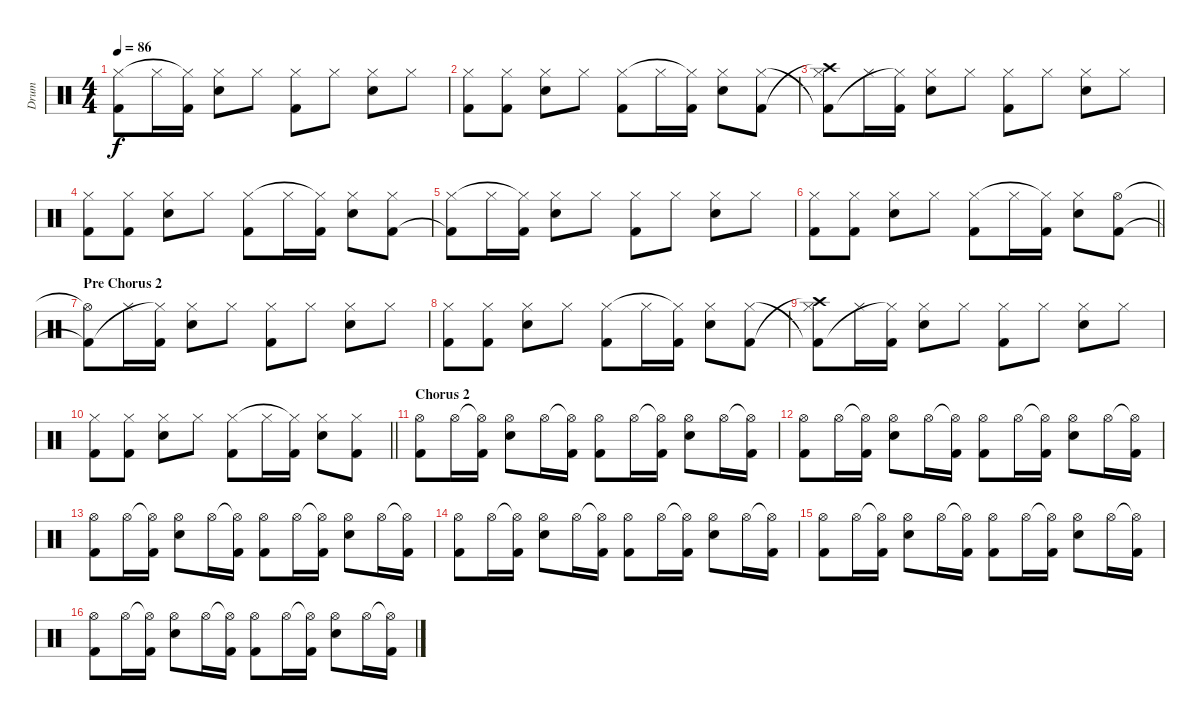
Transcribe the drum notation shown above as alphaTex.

\track ("Drum" "Drum") {instrument percussion}
\staff {score}
\articulation defaults
\ts (4 4)
\tempo 86
\clef neutral
\ks c
("Kick (hit) 2"{t} "Hi-Hat (closed)").8{dy f} "Hi-Hat (closed)".16 ("Kick (hit) 2" "Hi-Hat (closed)"{t}).16 ("Hi-Hat (closed)" "Snare (hit) 2").8 "Hi-Hat (closed)".8 ("Kick (hit) 2" "Hi-Hat (closed)").8 "Hi-Hat (closed)".8 ("Hi-Hat (closed)" "Snare (hit) 2").8 "Hi-Hat (closed)".8 |
("Kick (hit) 2" "Hi-Hat (closed)").8 ("Kick (hit) 2" "Hi-Hat (closed)").8 ("Hi-Hat (closed)" "Snare (hit) 2").8 "Hi-Hat (closed)".8 ("Kick (hit) 2" "Hi-Hat (closed)").8 "Hi-Hat (closed)".16 ("Kick (hit) 2" "Hi-Hat (closed)"{t}).16 ("Hi-Hat (closed)" "Snare (hit) 2").8 ("Kick (hit) 2" "Hi-Hat (closed)").8 |
("Crash high (hit)"{t} "Kick (hit) 2"{t} "Hi-Hat (closed)").8 "Hi-Hat (closed)".16 ("Kick (hit) 2" "Hi-Hat (closed)"{t}).16 ("Hi-Hat (closed)" "Snare (hit) 2").8 "Hi-Hat (closed)".8 ("Kick (hit) 2" "Hi-Hat (closed)").8 "Hi-Hat (closed)".8 ("Hi-Hat (closed)" "Snare (hit) 2").8 "Hi-Hat (closed)".8 |
("Kick (hit) 2" "Hi-Hat (closed)").8 ("Kick (hit) 2" "Hi-Hat (closed)").8 ("Hi-Hat (closed)" "Snare (hit) 2").8 "Hi-Hat (closed)".8 ("Kick (hit) 2" "Hi-Hat (closed)").8 "Hi-Hat (closed)".16 ("Kick (hit) 2" "Hi-Hat (closed)"{t}).16 ("Hi-Hat (closed)" "Snare (hit) 2").8 ("Kick (hit) 2" "Hi-Hat (closed)").8 |
("Kick (hit) 2"{t} "Hi-Hat (closed)").8 "Hi-Hat (closed)".16 ("Kick (hit) 2" "Hi-Hat (closed)"{t}).16 ("Hi-Hat (closed)" "Snare (hit) 2").8 "Hi-Hat (closed)".8 ("Kick (hit) 2" "Hi-Hat (closed)").8 "Hi-Hat (closed)".8 ("Hi-Hat (closed)" "Snare (hit) 2").8 "Hi-Hat (closed)".8 |
\barLineRight lightlight
("Kick (hit) 2" "Hi-Hat (closed)").8 ("Kick (hit) 2" "Hi-Hat (closed)").8 ("Hi-Hat (closed)" "Snare (hit) 2").8 "Hi-Hat (closed)".8 ("Kick (hit) 2" "Hi-Hat (closed)").8 "Hi-Hat (closed)".16 ("Kick (hit) 2" "Hi-Hat (closed)"{t}).16 ("Hi-Hat (closed)" "Snare (hit) 2").8 ("Hi-Hat (open)" "Kick (hit) 2").8 |
\section ("" "Pre Chorus 2")
("Hi-Hat (open)"{t} "Kick (hit) 2"{t}).8 "Hi-Hat (closed)".16 ("Kick (hit) 2" "Hi-Hat (closed)"{t}).16 ("Hi-Hat (closed)" "Snare (hit) 2").8 "Hi-Hat (closed)".8 ("Kick (hit) 2" "Hi-Hat (closed)").8 "Hi-Hat (closed)".8 ("Hi-Hat (closed)" "Snare (hit) 2").8 "Hi-Hat (closed)".8 |
("Kick (hit) 2" "Hi-Hat (closed)").8 ("Kick (hit) 2" "Hi-Hat (closed)").8 ("Hi-Hat (closed)" "Snare (hit) 2").8 "Hi-Hat (closed)".8 ("Kick (hit) 2" "Hi-Hat (closed)").8 "Hi-Hat (closed)".16 ("Kick (hit) 2" "Hi-Hat (closed)"{t}).16 ("Hi-Hat (closed)" "Snare (hit) 2").8 ("Kick (hit) 2" "Hi-Hat (closed)").8 |
("Crash high (hit)"{t} "Kick (hit) 2"{t} "Hi-Hat (closed)").8 "Hi-Hat (closed)".16 ("Kick (hit) 2" "Hi-Hat (closed)"{t}).16 ("Hi-Hat (closed)" "Snare (hit) 2").8 "Hi-Hat (closed)".8 ("Kick (hit) 2" "Hi-Hat (closed)").8 "Hi-Hat (closed)".8 ("Hi-Hat (closed)" "Snare (hit) 2").8 "Hi-Hat (closed)".8 |
\barLineRight lightlight
("Kick (hit) 2" "Hi-Hat (closed)").8 ("Kick (hit) 2" "Hi-Hat (closed)").8 ("Hi-Hat (closed)" "Snare (hit) 2").8 "Hi-Hat (closed)".8 ("Kick (hit) 2" "Hi-Hat (closed)").8 "Hi-Hat (closed)".16 ("Kick (hit) 2" "Hi-Hat (closed)"{t}).16 ("Hi-Hat (closed)" "Snare (hit) 2").8 ("Kick (hit) 2" "Hi-Hat (closed)").8 |
\section ("" "Chorus 2")
("Hi-Hat (open)" "Kick (hit) 2").8 "Hi-Hat (open)".16 ("Hi-Hat (open)"{t} "Kick (hit) 2").16 ("Hi-Hat (open)" "Snare (hit) 2").8 "Hi-Hat (open)".16 ("Hi-Hat (open)"{t} "Kick (hit) 2").16 ("Hi-Hat (open)" "Kick (hit) 2").8 "Hi-Hat (open)".16 ("Hi-Hat (open)"{t} "Kick (hit) 2").16 ("Hi-Hat (open)" "Snare (hit) 2").8 "Hi-Hat (open)".16 ("Hi-Hat (open)"{t} "Kick (hit) 2").16 |
("Hi-Hat (open)" "Kick (hit) 2").8 "Hi-Hat (open)".16 ("Hi-Hat (open)"{t} "Kick (hit) 2").16 ("Hi-Hat (open)" "Snare (hit) 2").8 "Hi-Hat (open)".16 ("Hi-Hat (open)"{t} "Kick (hit) 2").16 ("Hi-Hat (open)" "Kick (hit) 2").8 "Hi-Hat (open)".16 ("Hi-Hat (open)"{t} "Kick (hit) 2").16 ("Hi-Hat (open)" "Snare (hit) 2").8 "Hi-Hat (open)".16 ("Hi-Hat (open)"{t} "Kick (hit) 2").16 |
("Hi-Hat (open)" "Kick (hit) 2").8 "Hi-Hat (open)".16 ("Hi-Hat (open)"{t} "Kick (hit) 2").16 ("Hi-Hat (open)" "Snare (hit) 2").8 "Hi-Hat (open)".16 ("Hi-Hat (open)"{t} "Kick (hit) 2").16 ("Hi-Hat (open)" "Kick (hit) 2").8 "Hi-Hat (open)".16 ("Hi-Hat (open)"{t} "Kick (hit) 2").16 ("Hi-Hat (open)" "Snare (hit) 2").8 "Hi-Hat (open)".16 ("Hi-Hat (open)"{t} "Kick (hit) 2").16 |
("Hi-Hat (open)" "Kick (hit) 2").8 "Hi-Hat (open)".16 ("Hi-Hat (open)"{t} "Kick (hit) 2").16 ("Hi-Hat (open)" "Snare (hit) 2").8 "Hi-Hat (open)".16 ("Hi-Hat (open)"{t} "Kick (hit) 2").16 ("Hi-Hat (open)" "Kick (hit) 2").8 "Hi-Hat (open)".16 ("Hi-Hat (open)"{t} "Kick (hit) 2").16 ("Hi-Hat (open)" "Snare (hit) 2").8 "Hi-Hat (open)".16 ("Hi-Hat (open)"{t} "Kick (hit) 2").16 |
("Hi-Hat (open)" "Kick (hit) 2").8 "Hi-Hat (open)".16 ("Hi-Hat (open)"{t} "Kick (hit) 2").16 ("Hi-Hat (open)" "Snare (hit) 2").8 "Hi-Hat (open)".16 ("Hi-Hat (open)"{t} "Kick (hit) 2").16 ("Hi-Hat (open)" "Kick (hit) 2").8 "Hi-Hat (open)".16 ("Hi-Hat (open)"{t} "Kick (hit) 2").16 ("Hi-Hat (open)" "Snare (hit) 2").8 "Hi-Hat (open)".16 ("Hi-Hat (open)"{t} "Kick (hit) 2").16 |
("Hi-Hat (open)" "Kick (hit) 2").8 "Hi-Hat (open)".16 ("Hi-Hat (open)"{t} "Kick (hit) 2").16 ("Hi-Hat (open)" "Snare (hit) 2").8 "Hi-Hat (open)".16 ("Hi-Hat (open)"{t} "Kick (hit) 2").16 ("Hi-Hat (open)" "Kick (hit) 2").8 "Hi-Hat (open)".16 ("Hi-Hat (open)"{t} "Kick (hit) 2").16 ("Hi-Hat (open)" "Snare (hit) 2").8 "Hi-Hat (open)".16 ("Hi-Hat (open)"{t} "Kick (hit) 2").16
